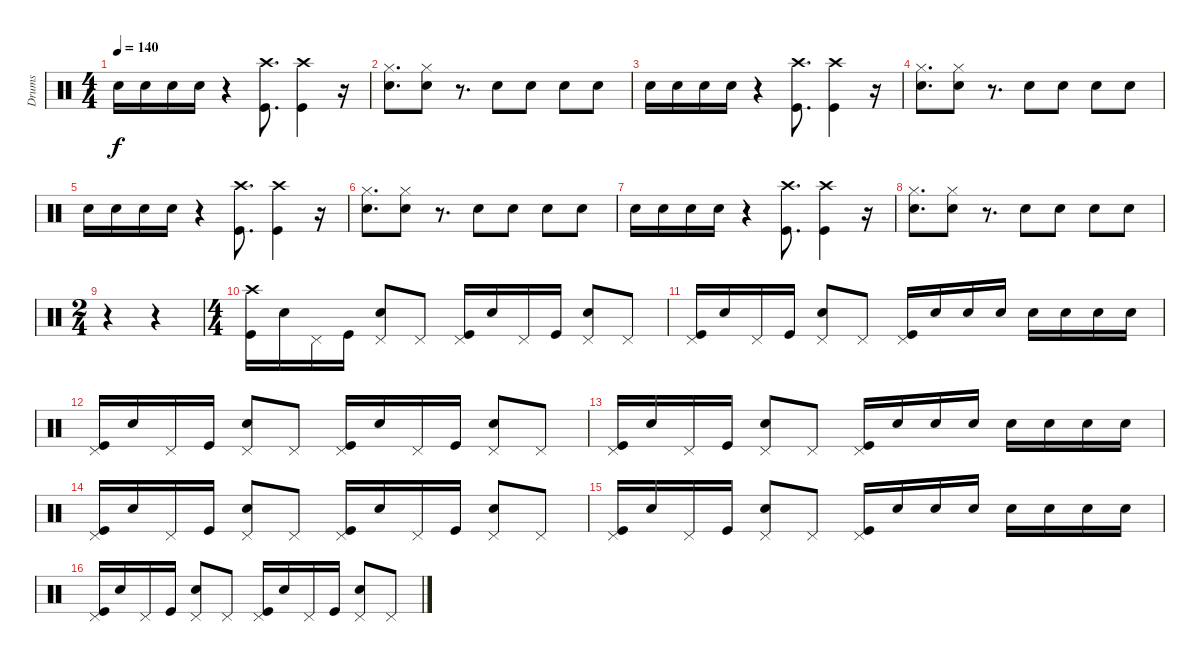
\track ("Drums" "Drums") {instrument percussion}
\staff {score}
\articulation defaults
\ts (4 4)
\tempo 140
\clef neutral
\ks c "Snare (hit) 2".16{dy f} "Snare (hit) 2".16 "Snare (hit) 2".16 "Snare (hit) 2".16
r.4 ("Kick (hit)" "Crash high (hit)").8{d} ("Kick (hit)" "Crash high (hit)").4 r.16 |
("Snare (hit) 2" "Hi-Hat (closed)").8{d} ("Snare (hit) 2" "Hi-Hat (closed)").8 r.8{d} "Snare (hit) 2".8 "Snare (hit) 2".8 "Snare (hit) 2".8 "Snare (hit) 2".8 |
"Snare (hit) 2".16 "Snare (hit) 2".16 "Snare (hit) 2".16 "Snare (hit) 2".16 r.4 ("Kick (hit)" "Crash high (hit)").8{d} ("Kick (hit)" "Crash high (hit)").4 r.16 |
("Snare (hit) 2" "Hi-Hat (closed)").8{d} ("Snare (hit) 2" "Hi-Hat (closed)").8 r.8{d} "Snare (hit) 2".8 "Snare (hit) 2".8 "Snare (hit) 2".8 "Snare (hit) 2".8 |
"Snare (hit) 2".16 "Snare (hit) 2".16 "Snare (hit) 2".16 "Snare (hit) 2".16 r.4 ("Kick (hit)" "Crash high (hit)").8{d} ("Kick (hit)" "Crash high (hit)").4 r.16 |
("Snare (hit) 2" "Hi-Hat (closed)").8{d} ("Snare (hit) 2" "Hi-Hat (closed)").8 r.8{d} "Snare (hit) 2".8 "Snare (hit) 2".8 "Snare (hit) 2".8 "Snare (hit) 2".8 |
"Snare (hit) 2".16 "Snare (hit) 2".16 "Snare (hit) 2".16 "Snare (hit) 2".16 r.4 ("Kick (hit)" "Crash high (hit)").8{d} ("Kick (hit)" "Crash high (hit)").4 r.16 |
("Snare (hit) 2" "Hi-Hat (closed)").8{d} ("Snare (hit) 2" "Hi-Hat (closed)").8 r.8{d} "Snare (hit) 2".8 "Snare (hit) 2".8 "Snare (hit) 2".8 "Snare (hit) 2".8 |
\ts (2 4)
r.4 r.4 |
\ts (4 4)
("Kick (hit)" "Crash high (hit)").16 "Snare (hit) 2".16 "Pedal Hi-Hat (hit)".16 "Kick (hit)".16 ("Snare (hit) 2" "Pedal Hi-Hat (hit)").8 "Pedal Hi-Hat (hit)".8 ("Kick (hit)" "Pedal Hi-Hat (hit)").16 "Snare (hit) 2".16 "Pedal Hi-Hat (hit)".16 "Kick (hit)".16 ("Snare (hit) 2" "Pedal Hi-Hat (hit)").8 "Pedal Hi-Hat (hit)".8 |
("Kick (hit)" "Pedal Hi-Hat (hit)").16 "Snare (hit) 2".16 "Pedal Hi-Hat (hit)".16 "Kick (hit)".16 ("Snare (hit) 2" "Pedal Hi-Hat (hit)").8 "Pedal Hi-Hat (hit)".8 ("Kick (hit)" "Pedal Hi-Hat (hit)").16 "Snare (hit) 2".16 "Snare (hit) 2".16 "Snare (hit) 2".16 "Snare (hit) 2".16 "Snare (hit) 2".16 "Snare (hit) 2".16 "Snare (hit) 2".16 |
("Kick (hit)" "Pedal Hi-Hat (hit)").16 "Snare (hit) 2".16 "Pedal Hi-Hat (hit)".16 "Kick (hit)".16 ("Snare (hit) 2" "Pedal Hi-Hat (hit)").8 "Pedal Hi-Hat (hit)".8 ("Kick (hit)" "Pedal Hi-Hat (hit)").16 "Snare (hit) 2".16 "Pedal Hi-Hat (hit)".16 "Kick (hit)".16 ("Snare (hit) 2" "Pedal Hi-Hat (hit)").8 "Pedal Hi-Hat (hit)".8 |
("Kick (hit)" "Pedal Hi-Hat (hit)").16 "Snare (hit) 2".16 "Pedal Hi-Hat (hit)".16 "Kick (hit)".16 ("Snare (hit) 2" "Pedal Hi-Hat (hit)").8 "Pedal Hi-Hat (hit)".8 ("Kick (hit)" "Pedal Hi-Hat (hit)").16 "Snare (hit) 2".16 "Snare (hit) 2".16 "Snare (hit) 2".16 "Snare (hit) 2".16 "Snare (hit) 2".16 "Snare (hit) 2".16 "Snare (hit) 2".16 |
("Kick (hit)" "Pedal Hi-Hat (hit)").16 "Snare (hit) 2".16 "Pedal Hi-Hat (hit)".16 "Kick (hit)".16 ("Snare (hit) 2" "Pedal Hi-Hat (hit)").8 "Pedal Hi-Hat (hit)".8 ("Kick (hit)" "Pedal Hi-Hat (hit)").16 "Snare (hit) 2".16 "Pedal Hi-Hat (hit)".16 "Kick (hit)".16 ("Snare (hit) 2" "Pedal Hi-Hat (hit)").8 "Pedal Hi-Hat (hit)".8 |
("Kick (hit)" "Pedal Hi-Hat (hit)").16 "Snare (hit) 2".16 "Pedal Hi-Hat (hit)".16 "Kick (hit)".16 ("Snare (hit) 2" "Pedal Hi-Hat (hit)").8 "Pedal Hi-Hat (hit)".8 ("Kick (hit)" "Pedal Hi-Hat (hit)").16 "Snare (hit) 2".16 "Snare (hit) 2".16 "Snare (hit) 2".16 "Snare (hit) 2".16 "Snare (hit) 2".16 "Snare (hit) 2".16 "Snare (hit) 2".16 |
("Kick (hit)" "Pedal Hi-Hat (hit)").16 "Snare (hit) 2".16 "Pedal Hi-Hat (hit)".16 "Kick (hit)".16 ("Snare (hit) 2" "Pedal Hi-Hat (hit)").8 "Pedal Hi-Hat (hit)".8 ("Kick (hit)" "Pedal Hi-Hat (hit)").16 "Snare (hit) 2".16 "Pedal Hi-Hat (hit)".16 "Kick (hit)".16 ("Snare (hit) 2" "Pedal Hi-Hat (hit)").8 "Pedal Hi-Hat (hit)".8
